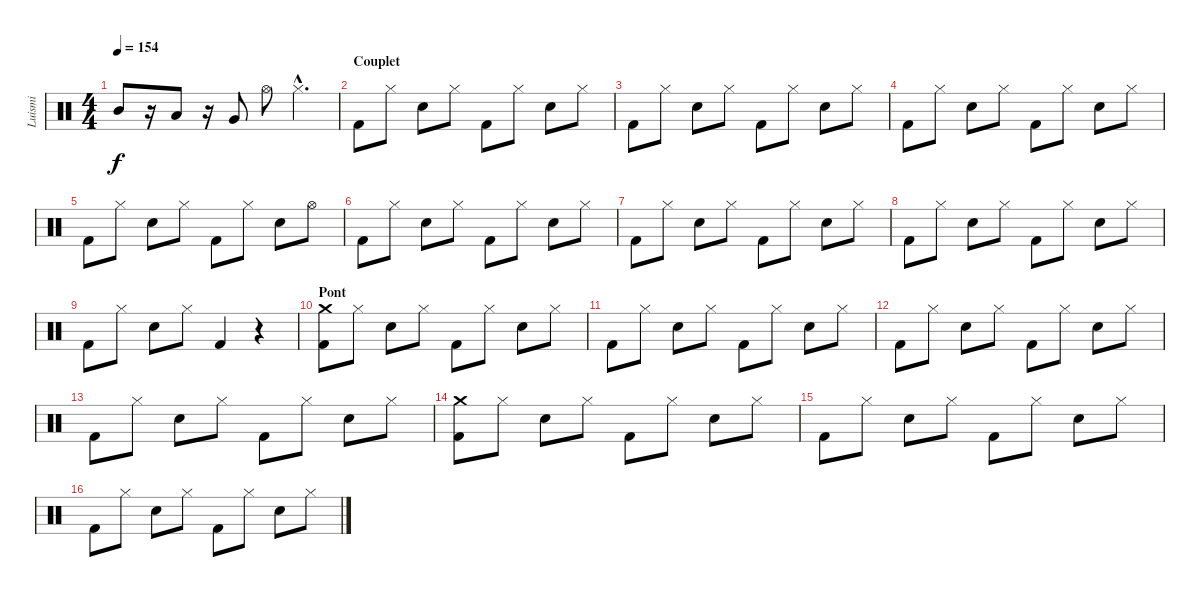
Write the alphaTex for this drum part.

\track ("Luismi" "Luismi") {instrument percussion}
\staff {score}
\articulation defaults
\ts (4 4)
\tempo 154
\clef neutral
\ks c "Mid Tom (hit)".8{dy f}
r.16 "Low Tom (hit)".8 r.16 "Very Low Tom (hit)".8 "Hi-Hat (open)".8 "Hi-Hat (closed)"{hac}.4{d} |
\section ("" "Couplet")
"Kick (hit) 2".8 "Hi-Hat (closed)".8 "Snare (hit) 2".8 "Hi-Hat (closed)".8 "Kick (hit) 2".8 "Hi-Hat (closed)".8 "Snare (hit) 2".8 "Hi-Hat (closed)".8 |
"Kick (hit) 2".8 "Hi-Hat (closed)".8 "Snare (hit) 2".8 "Hi-Hat (closed)".8 "Kick (hit) 2".8 "Hi-Hat (closed)".8 "Snare (hit) 2".8 "Hi-Hat (closed)".8 |
"Kick (hit) 2".8 "Hi-Hat (closed)".8 "Snare (hit) 2".8 "Hi-Hat (closed)".8 "Kick (hit) 2".8 "Hi-Hat (closed)".8 "Snare (hit) 2".8 "Hi-Hat (closed)".8 |
"Kick (hit) 2".8 "Hi-Hat (closed)".8 "Snare (hit) 2".8 "Hi-Hat (closed)".8 "Kick (hit) 2".8 "Hi-Hat (closed)".8 "Snare (hit) 2".8 "Hi-Hat (open)".8 |
"Kick (hit) 2".8 "Hi-Hat (closed)".8 "Snare (hit) 2".8 "Hi-Hat (closed)".8 "Kick (hit) 2".8 "Hi-Hat (closed)".8 "Snare (hit) 2".8 "Hi-Hat (closed)".8 |
"Kick (hit) 2".8 "Hi-Hat (closed)".8 "Snare (hit) 2".8 "Hi-Hat (closed)".8 "Kick (hit) 2".8 "Hi-Hat (closed)".8 "Snare (hit) 2".8 "Hi-Hat (closed)".8 |
"Kick (hit) 2".8 "Hi-Hat (closed)".8 "Snare (hit) 2".8 "Hi-Hat (closed)".8 "Kick (hit) 2".8 "Hi-Hat (closed)".8 "Snare (hit) 2".8 "Hi-Hat (closed)".8 |
"Kick (hit) 2".8 "Hi-Hat (closed)".8 "Snare (hit) 2".8 "Hi-Hat (closed)".8 "Kick (hit) 2".4 r.4 |
\section ("" "Pont")
("Crash medium (hit)" "Kick (hit) 2").8 "Hi-Hat (closed)".8 "Snare (hit) 2".8 "Hi-Hat (closed)".8 "Kick (hit) 2".8 "Hi-Hat (closed)".8 "Snare (hit) 2".8 "Hi-Hat (closed)".8 |
"Kick (hit) 2".8 "Hi-Hat (closed)".8 "Snare (hit) 2".8 "Hi-Hat (closed)".8 "Kick (hit) 2".8 "Hi-Hat (closed)".8 "Snare (hit) 2".8 "Hi-Hat (closed)".8 |
"Kick (hit) 2".8 "Hi-Hat (closed)".8 "Snare (hit) 2".8 "Hi-Hat (closed)".8 "Kick (hit) 2".8 "Hi-Hat (closed)".8 "Snare (hit) 2".8 "Hi-Hat (closed)".8 |
"Kick (hit) 2".8 "Hi-Hat (closed)".8 "Snare (hit) 2".8 "Hi-Hat (closed)".8 "Kick (hit) 2".8 "Hi-Hat (closed)".8 "Snare (hit) 2".8 "Hi-Hat (closed)".8 |
("Crash medium (hit)" "Kick (hit) 2").8 "Hi-Hat (closed)".8 "Snare (hit) 2".8 "Hi-Hat (closed)".8 "Kick (hit) 2".8 "Hi-Hat (closed)".8 "Snare (hit) 2".8 "Hi-Hat (closed)".8 |
"Kick (hit) 2".8 "Hi-Hat (closed)".8 "Snare (hit) 2".8 "Hi-Hat (closed)".8 "Kick (hit) 2".8 "Hi-Hat (closed)".8 "Snare (hit) 2".8 "Hi-Hat (closed)".8 |
"Kick (hit) 2".8 "Hi-Hat (closed)".8 "Snare (hit) 2".8 "Hi-Hat (closed)".8 "Kick (hit) 2".8 "Hi-Hat (closed)".8 "Snare (hit) 2".8 "Hi-Hat (closed)".8
